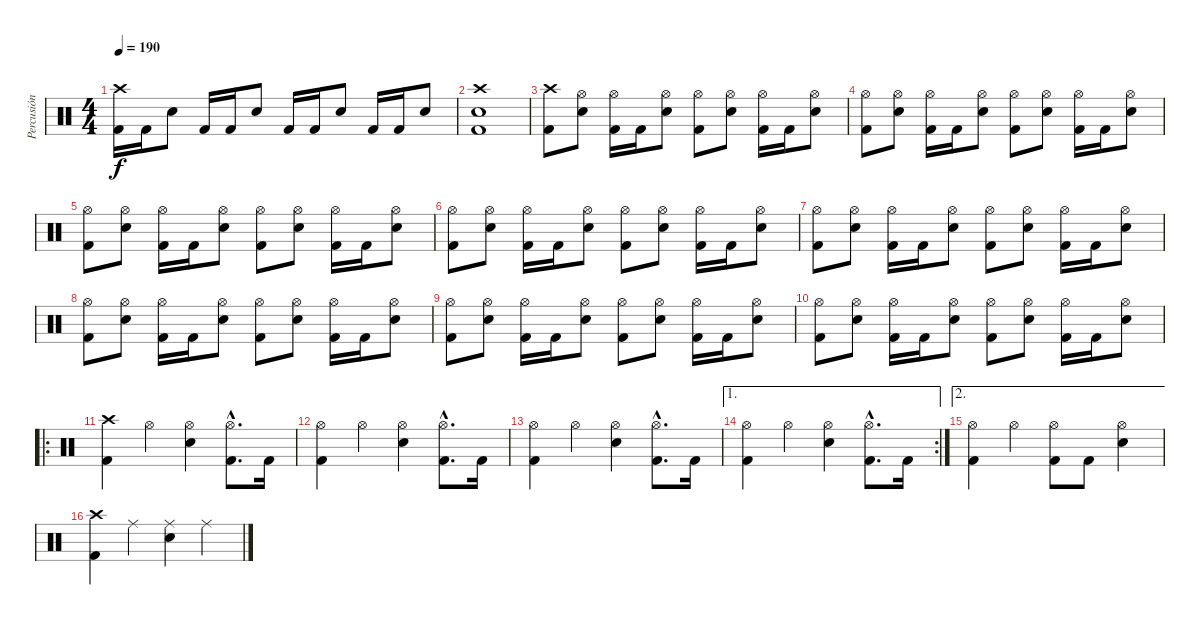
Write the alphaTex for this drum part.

\track ("Percusión" "Percusión") {instrument percussion}
\staff {score}
\articulation defaults
\ts (4 4)
\tempo 190
\clef neutral
\ks c
("Kick (hit) 2" "Crash high (hit)").16{dy f} "Kick (hit) 2".16 "Snare (hit) 2".8 "Kick (hit) 2".16 "Kick (hit) 2".16 "Snare (hit) 2".8 "Kick (hit) 2".16 "Kick (hit) 2".16 "Snare (hit) 2".8 "Kick (hit) 2".16 "Kick (hit) 2".16 "Snare (hit) 2".8 |
("Kick (hit) 2" "Snare (hit) 2" "Crash high (hit)").1 |
("Kick (hit) 2" "Crash high (hit)").8 ("Snare (hit) 2" "Hi-Hat (open)").8 ("Kick (hit) 2" "Hi-Hat (open)").16 "Kick (hit) 2".16 ("Snare (hit) 2" "Hi-Hat (open)").8 ("Kick (hit) 2" "Hi-Hat (open)").8 ("Snare (hit) 2" "Hi-Hat (open)").8 ("Kick (hit) 2" "Hi-Hat (open)").16 "Kick (hit) 2".16 ("Snare (hit) 2" "Hi-Hat (open)").8 |
("Kick (hit) 2" "Hi-Hat (open)").8 ("Snare (hit) 2" "Hi-Hat (open)").8 ("Kick (hit) 2" "Hi-Hat (open)").16 "Kick (hit) 2".16 ("Snare (hit) 2" "Hi-Hat (open)").8 ("Kick (hit) 2" "Hi-Hat (open)").8 ("Snare (hit) 2" "Hi-Hat (open)").8 ("Kick (hit) 2" "Hi-Hat (open)").16 "Kick (hit) 2".16 ("Snare (hit) 2" "Hi-Hat (open)").8 |
("Kick (hit) 2" "Hi-Hat (open)").8 ("Snare (hit) 2" "Hi-Hat (open)").8 ("Kick (hit) 2" "Hi-Hat (open)").16 "Kick (hit) 2".16 ("Snare (hit) 2" "Hi-Hat (open)").8 ("Kick (hit) 2" "Hi-Hat (open)").8 ("Snare (hit) 2" "Hi-Hat (open)").8 ("Kick (hit) 2" "Hi-Hat (open)").16 "Kick (hit) 2".16 ("Snare (hit) 2" "Hi-Hat (open)").8 |
("Kick (hit) 2" "Hi-Hat (open)").8 ("Snare (hit) 2" "Hi-Hat (open)").8 ("Kick (hit) 2" "Hi-Hat (open)").16 "Kick (hit) 2".16 ("Snare (hit) 2" "Hi-Hat (open)").8 ("Kick (hit) 2" "Hi-Hat (open)").8 ("Snare (hit) 2" "Hi-Hat (open)").8 ("Kick (hit) 2" "Hi-Hat (open)").16 "Kick (hit) 2".16 ("Snare (hit) 2" "Hi-Hat (open)").8 |
("Kick (hit) 2" "Hi-Hat (open)").8 ("Snare (hit) 2" "Hi-Hat (open)").8 ("Kick (hit) 2" "Hi-Hat (open)").16 "Kick (hit) 2".16 ("Snare (hit) 2" "Hi-Hat (open)").8 ("Kick (hit) 2" "Hi-Hat (open)").8 ("Snare (hit) 2" "Hi-Hat (open)").8 ("Kick (hit) 2" "Hi-Hat (open)").16 "Kick (hit) 2".16 ("Snare (hit) 2" "Hi-Hat (open)").8 |
("Kick (hit) 2" "Hi-Hat (open)").8 ("Snare (hit) 2" "Hi-Hat (open)").8 ("Kick (hit) 2" "Hi-Hat (open)").16 "Kick (hit) 2".16 ("Snare (hit) 2" "Hi-Hat (open)").8 ("Kick (hit) 2" "Hi-Hat (open)").8 ("Snare (hit) 2" "Hi-Hat (open)").8 ("Kick (hit) 2" "Hi-Hat (open)").16 "Kick (hit) 2".16 ("Snare (hit) 2" "Hi-Hat (open)").8 |
("Kick (hit) 2" "Hi-Hat (open)").8 ("Snare (hit) 2" "Hi-Hat (open)").8 ("Kick (hit) 2" "Hi-Hat (open)").16 "Kick (hit) 2".16 ("Snare (hit) 2" "Hi-Hat (open)").8 ("Kick (hit) 2" "Hi-Hat (open)").8 ("Snare (hit) 2" "Hi-Hat (open)").8 ("Kick (hit) 2" "Hi-Hat (open)").16 "Kick (hit) 2".16 ("Snare (hit) 2" "Hi-Hat (open)").8 |
("Kick (hit) 2" "Hi-Hat (open)").8 ("Snare (hit) 2" "Hi-Hat (open)").8 ("Kick (hit) 2" "Hi-Hat (open)").16 "Kick (hit) 2".16 ("Snare (hit) 2" "Hi-Hat (open)").8 ("Kick (hit) 2" "Hi-Hat (open)").8 ("Snare (hit) 2" "Hi-Hat (open)").8 ("Kick (hit) 2" "Hi-Hat (open)").16 "Kick (hit) 2".16 ("Snare (hit) 2" "Hi-Hat (open)").8 |
\ro
("Kick (hit) 2" "Crash high (hit)").4 "Hi-Hat (open)".4 ("Snare (hit) 2" "Hi-Hat (open)").4 ("Kick (hit) 2"{hac} "Hi-Hat (open)"{hac}).8{d} "Kick (hit) 2".16 |
("Kick (hit) 2" "Hi-Hat (open)").4 "Hi-Hat (open)".4 ("Snare (hit) 2" "Hi-Hat (open)").4 ("Kick (hit) 2"{hac} "Hi-Hat (open)"{hac}).8{d} "Kick (hit) 2".16 |
("Kick (hit) 2" "Hi-Hat (open)").4 "Hi-Hat (open)".4 ("Snare (hit) 2" "Hi-Hat (open)").4 ("Kick (hit) 2"{hac} "Hi-Hat (open)"{hac}).8{d} "Kick (hit) 2".16 |
\ae 1
\rc 2
("Kick (hit) 2" "Hi-Hat (open)").4 "Hi-Hat (open)".4 ("Snare (hit) 2" "Hi-Hat (open)").4 ("Kick (hit) 2"{hac} "Hi-Hat (open)"{hac}).8{d} "Kick (hit) 2".16 |
\ae 2
("Kick (hit) 2" "Hi-Hat (open)").4 "Hi-Hat (open)".4 ("Kick (hit) 2" "Hi-Hat (open)").8 "Kick (hit) 2".8 ("Snare (hit) 2" "Hi-Hat (open)").4 |
("Kick (hit) 2" "Crash high (hit)").4 "Ride (middle)".4 ("Snare (hit) 2" "Ride (middle)").4 "Ride (middle)".4
